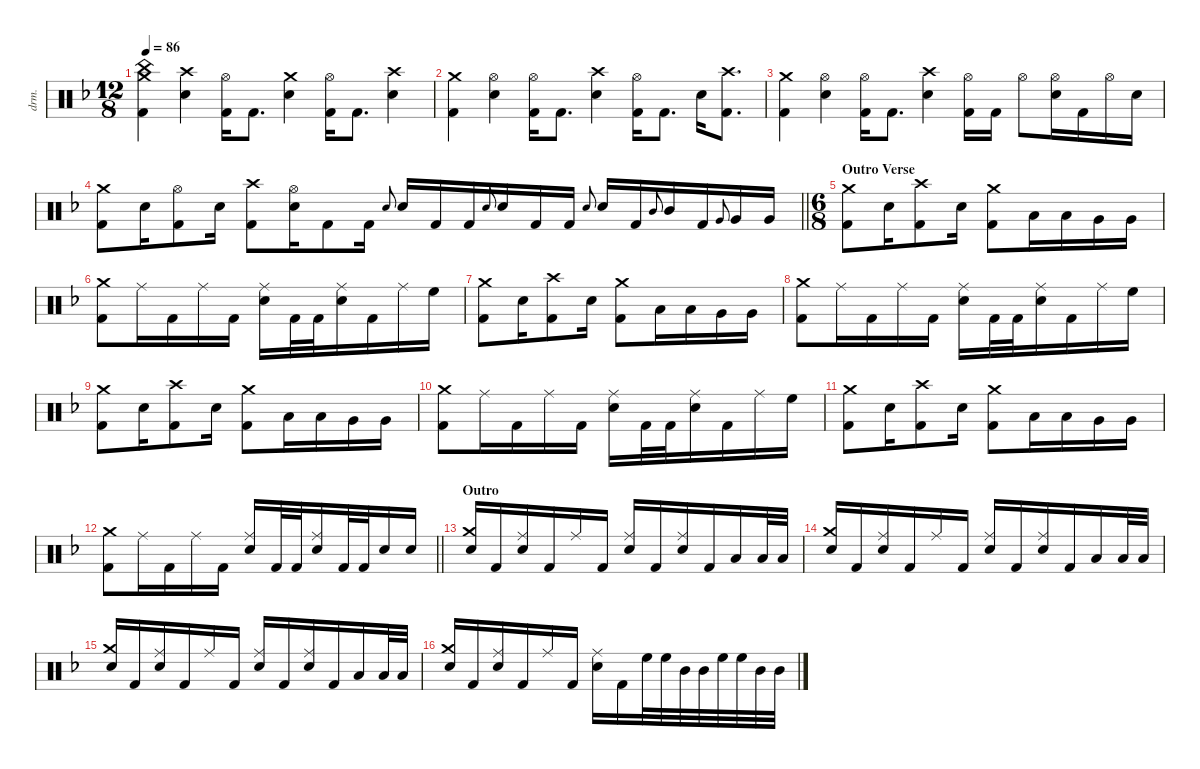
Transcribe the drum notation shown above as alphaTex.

\defaultSystemsLayout 4
\hideDynamics
\bracketExtendMode nobrackets
\otherSystemsTrackNameOrientation horizontal
\track ("Drums" "drm.") {instrument percussion}
\staff {score}
\articulation defaults
\ts (12 8)
\tempo 86
\clef neutral
\ks dminor
("Crash medium (hit)"{acc forcenatural} "China (hit)"{acc forcenatural} "Kick (hit) 2"{acc forcenatural}).4{dy f beam Down} ("Crash high (hit)"{acc forcenatural} "Snare (hit) 2"{acc forcenatural}).4{beam Down} ("Hi-Hat (open)"{acc forcenatural} "Kick (hit) 2"{acc forcenatural}).16{beam Down} "Kick (hit) 2"{acc forcenatural}.8{d beam Down} ("Crash medium (hit)"{acc forcenatural} "Snare (hit) 2"{acc forcenatural}).4{beam Down} ("Hi-Hat (open)"{acc forcenatural} "Kick (hit) 2"{acc forcenatural}).16{beam Down} "Kick (hit) 2"{acc forcenatural}.8{d beam Down} ("Crash high (hit)"{acc forcenatural} "Snare (hit) 2"{acc forcenatural}).4{beam Down} |
("Crash medium (hit)"{acc forcenatural} "Kick (hit) 2"{acc forcenatural}).4{beam Down} ("Hi-Hat (open)"{acc forcenatural} "Snare (hit) 2"{acc forcenatural}).4{beam Down} ("Hi-Hat (open)"{acc forcenatural} "Kick (hit) 2"{acc forcenatural}).16{beam Down} "Kick (hit) 2"{acc forcenatural}.8{d beam Down} ("Crash high (hit)"{acc forcenatural} "Snare (hit) 2"{acc forcenatural}).4{beam Down} ("Hi-Hat (open)"{acc forcenatural} "Kick (hit) 2"{acc forcenatural}).16{beam Down} "Kick (hit) 2"{acc forcenatural}.8{d beam Down} "Snare (hit) 2"{acc forcenatural}.16{beam Down} ("Crash high (hit)"{acc forcenatural} "Kick (hit) 2"{acc forcenatural}).8{d beam Down} |
("Crash medium (hit)"{acc forcenatural} "Kick (hit) 2"{acc forcenatural}).4{beam Down} ("Hi-Hat (open)"{acc forcenatural} "Snare (hit) 2"{acc forcenatural}).4{beam Down} ("Hi-Hat (open)"{acc forcenatural} "Kick (hit) 2"{acc forcenatural}).16{beam Down} "Kick (hit) 2"{acc forcenatural}.8{d beam Down} ("Crash high (hit)"{acc forcenatural} "Snare (hit) 2"{acc forcenatural}).4{beam Down} ("Hi-Hat (open)"{acc forcenatural} "Kick (hit) 2"{acc forcenatural}).16{beam Down} "Kick (hit) 2"{acc forcenatural}.16{beam Down} "Hi-Hat (open)"{acc forcenatural}.8{beam Down} ("Hi-Hat (open)"{acc forcenatural} "Snare (hit) 2"{acc forcenatural}).16{beam Down} "Kick (hit) 2"{acc forcenatural}.16{beam Down} "Hi-Hat (open)"{acc forcenatural}.16{beam Down} "Snare (hit) 2"{acc forcenatural}.16{beam Down} |
\barLineRight lightlight
("Crash medium (hit)"{acc forcenatural} "Kick (hit) 2"{acc forcenatural}).8{beam Down} "Snare (hit) 2"{acc forcenatural}.16{beam Down} ("Hi-Hat (open)"{acc forcenatural} "Kick (hit) 2"{acc forcenatural}).8{beam Down} "Snare (hit) 2"{acc forcenatural}.16{beam Down} ("Crash high (hit)"{acc forcenatural} "Kick (hit) 2"{acc forcenatural}).8{beam Down} ("Hi-Hat (open)"{acc forcenatural} "Snare (hit) 2"{acc forcenatural}).16{beam Down} "Kick (hit) 2"{acc forcenatural}.8{beam Down} "Kick (hit) 2"{acc forcenatural}.16{beam Down} "Snare (hit) 2"{acc forcenatural}.8{gr onbeat dy mf beam Up} "Snare (hit) 2"{acc forcenatural}.16{dy f beam Up} "Kick (hit) 2"{acc forcenatural}.16{beam Up} "Kick (hit) 2"{acc forcenatural}.16{beam Up} "Snare (hit) 2"{acc forcenatural}.8{gr onbeat dy mf beam Up} "Snare (hit) 2"{acc forcenatural}.16{dy f beam Up} "Kick (hit) 2"{acc forcenatural}.16{beam Up} "Kick (hit) 2"{acc forcenatural}.16{beam Up} "Snare (hit) 2"{acc forcenatural}.8{gr onbeat dy mf beam Up} "Snare (hit) 2"{acc forcenatural}.16{dy f beam Up} "Kick (hit) 2"{acc forcenatural}.16{beam Up} "Mid Tom (hit)"{acc forcenatural}.8{gr onbeat dy mf beam Up} "Mid Tom (hit)"{acc forcenatural}.16{dy f beam Up} "Kick (hit) 2"{acc forcenatural}.16{beam Up} "Very Low Tom (hit)"{acc forcenatural}.8{gr onbeat dy mf beam Up} "Very Low Tom (hit)"{acc forcenatural}.16{dy f beam Up} "Very Low Tom (hit)"{acc forcenatural}.16{beam Up} |
\ts (6 8)
\beaming (8 3 3)
\section ("" "Outro Verse")
("Crash medium (hit)"{acc forcenatural} "Kick (hit) 2"{acc forcenatural}).8{beam Down} "Snare (hit) 2"{acc forcenatural}.16{beam Down} ("Crash high (hit)"{acc forcenatural} "Kick (hit) 2"{acc forcenatural}).8{beam Down} "Snare (hit) 2"{acc forcenatural}.16{beam Down} ("Crash medium (hit)"{acc forcenatural} "Kick (hit) 2"{acc forcenatural}).8{beam Down} "Low Tom (hit)"{acc forcenatural}.16{beam Down} "Low Tom (hit)"{acc forcenatural}.16{beam Down} "Very Low Tom (hit)"{acc forcenatural}.16{beam Down} "Very Low Tom (hit)"{acc forcenatural}.16{beam Down} |
("Crash medium (hit)"{acc forcenatural} "Kick (hit) 2"{acc forcenatural}).8{beam Down} "Ride (middle)"{acc forcenatural}.16{beam Down} "Kick (hit) 2"{acc forcenatural}.16{beam Down} "Ride (middle)"{acc forcenatural}.16{beam Down} "Kick (hit) 2"{acc forcenatural}.16{beam Down} ("Ride (middle)"{acc forcenatural} "Snare (hit) 2"{acc forcenatural}).16{beam Down} "Kick (hit) 2"{acc forcenatural}.32{beam Down} "Kick (hit) 2"{acc forcenatural}.32{beam Down} ("Ride (middle)"{acc forcenatural} "Snare (hit) 2"{acc forcenatural}).16{beam Down} "Kick (hit) 2"{acc forcenatural}.16{beam Down} "Ride (middle)"{acc forcenatural}.16{beam Down} "High Floor Tom (hit)"{acc forcenatural}.16{beam Down} |
("Crash medium (hit)"{acc forcenatural} "Kick (hit) 2"{acc forcenatural}).8{beam Down} "Snare (hit) 2"{acc forcenatural}.16{beam Down} ("Crash high (hit)"{acc forcenatural} "Kick (hit) 2"{acc forcenatural}).8{beam Down} "Snare (hit) 2"{acc forcenatural}.16{beam Down} ("Crash medium (hit)"{acc forcenatural} "Kick (hit) 2"{acc forcenatural}).8{beam Down} "Low Tom (hit)"{acc forcenatural}.16{beam Down} "Low Tom (hit)"{acc forcenatural}.16{beam Down} "Very Low Tom (hit)"{acc forcenatural}.16{beam Down} "Very Low Tom (hit)"{acc forcenatural}.16{beam Down} |
("Crash medium (hit)"{acc forcenatural} "Kick (hit) 2"{acc forcenatural}).8{beam Down} "Ride (middle)"{acc forcenatural}.16{beam Down} "Kick (hit) 2"{acc forcenatural}.16{beam Down} "Ride (middle)"{acc forcenatural}.16{beam Down} "Kick (hit) 2"{acc forcenatural}.16{beam Down} ("Ride (middle)"{acc forcenatural} "Snare (hit) 2"{acc forcenatural}).16{beam Down} "Kick (hit) 2"{acc forcenatural}.32{beam Down} "Kick (hit) 2"{acc forcenatural}.32{beam Down} ("Ride (middle)"{acc forcenatural} "Snare (hit) 2"{acc forcenatural}).16{beam Down} "Kick (hit) 2"{acc forcenatural}.16{beam Down} "Ride (middle)"{acc forcenatural}.16{beam Down} "High Floor Tom (hit)"{acc forcenatural}.16{beam Down} |
("Crash medium (hit)"{acc forcenatural} "Kick (hit) 2"{acc forcenatural}).8{beam Down} "Snare (hit) 2"{acc forcenatural}.16{beam Down} ("Crash high (hit)"{acc forcenatural} "Kick (hit) 2"{acc forcenatural}).8{beam Down} "Snare (hit) 2"{acc forcenatural}.16{beam Down} ("Crash medium (hit)"{acc forcenatural} "Kick (hit) 2"{acc forcenatural}).8{beam Down} "Low Tom (hit)"{acc forcenatural}.16{beam Down} "Low Tom (hit)"{acc forcenatural}.16{beam Down} "Very Low Tom (hit)"{acc forcenatural}.16{beam Down} "Very Low Tom (hit)"{acc forcenatural}.16{beam Down} |
("Crash medium (hit)"{acc forcenatural} "Kick (hit) 2"{acc forcenatural}).8{beam Down} "Ride (middle)"{acc forcenatural}.16{beam Down} "Kick (hit) 2"{acc forcenatural}.16{beam Down} "Ride (middle)"{acc forcenatural}.16{beam Down} "Kick (hit) 2"{acc forcenatural}.16{beam Down} ("Ride (middle)"{acc forcenatural} "Snare (hit) 2"{acc forcenatural}).16{beam Down} "Kick (hit) 2"{acc forcenatural}.32{beam Down} "Kick (hit) 2"{acc forcenatural}.32{beam Down} ("Ride (middle)"{acc forcenatural} "Snare (hit) 2"{acc forcenatural}).16{beam Down} "Kick (hit) 2"{acc forcenatural}.16{beam Down} "Ride (middle)"{acc forcenatural}.16{beam Down} "High Floor Tom (hit)"{acc forcenatural}.16{beam Down} |
("Crash medium (hit)"{acc forcenatural} "Kick (hit) 2"{acc forcenatural}).8{beam Down} "Snare (hit) 2"{acc forcenatural}.16{beam Down} ("Crash high (hit)"{acc forcenatural} "Kick (hit) 2"{acc forcenatural}).8{beam Down} "Snare (hit) 2"{acc forcenatural}.16{beam Down} ("Crash medium (hit)"{acc forcenatural} "Kick (hit) 2"{acc forcenatural}).8{beam Down} "Low Tom (hit)"{acc forcenatural}.16{beam Down} "Low Tom (hit)"{acc forcenatural}.16{beam Down} "Very Low Tom (hit)"{acc forcenatural}.16{beam Down} "Very Low Tom (hit)"{acc forcenatural}.16{beam Down} |
\barLineRight lightlight
("Crash medium (hit)"{acc forcenatural} "Kick (hit) 2"{acc forcenatural}).8{beam Down} "Ride (middle)"{acc forcenatural}.16{beam Down} "Kick (hit) 2"{acc forcenatural}.16{beam Down} "Ride (middle)"{acc forcenatural}.16{beam Down} "Kick (hit) 2"{acc forcenatural}.16{beam Down} ("Ride (middle)"{acc forcenatural} "Snare (hit) 2"{acc forcenatural}).16{beam Up} "Kick (hit) 2"{acc forcenatural}.32{beam Up} "Kick (hit) 2"{acc forcenatural}.32{beam Up} ("Ride (middle)"{acc forcenatural} "Snare (hit) 2"{acc forcenatural}).16{beam Up} "Kick (hit) 2"{acc forcenatural}.32{beam Up} "Kick (hit) 2"{acc forcenatural}.32{beam Up} "Snare (hit) 2"{acc forcenatural}.16{beam Up} "Snare (hit) 2"{acc forcenatural}.16{beam Up} |
\section ("" "Outro")
("Crash medium (hit)"{acc forcenatural} "Snare (hit) 2"{acc forcenatural}).16{beam Up} "Kick (hit) 2"{acc forcenatural}.16{beam Up} ("Ride (middle)"{acc forcenatural} "Snare (hit) 2"{acc forcenatural}).16{beam Up} "Kick (hit) 2"{acc forcenatural}.16{beam Up} "Ride (middle)"{acc forcenatural}.16{beam Up} "Kick (hit) 2"{acc forcenatural}.16{beam Up} ("Ride (middle)"{acc forcenatural} "Snare (hit) 2"{acc forcenatural}).16{beam Up} "Kick (hit) 2"{acc forcenatural}.16{beam Up} ("Ride (middle)"{acc forcenatural} "Snare (hit) 2"{acc forcenatural}).16{beam Up} "Kick (hit) 2"{acc forcenatural}.16{beam Up} "Low Tom (hit)"{acc forcenatural}.16{beam Up} "Low Tom (hit)"{acc forcenatural}.32{beam Up} "Low Tom (hit)"{acc forcenatural}.32{beam Up} |
("Crash medium (hit)"{acc forcenatural} "Snare (hit) 2"{acc forcenatural}).16{beam Up} "Kick (hit) 2"{acc forcenatural}.16{beam Up} ("Ride (middle)"{acc forcenatural} "Snare (hit) 2"{acc forcenatural}).16{beam Up} "Kick (hit) 2"{acc forcenatural}.16{beam Up} "Ride (middle)"{acc forcenatural}.16{beam Up} "Kick (hit) 2"{acc forcenatural}.16{beam Up} ("Ride (middle)"{acc forcenatural} "Snare (hit) 2"{acc forcenatural}).16{beam Up} "Kick (hit) 2"{acc forcenatural}.16{beam Up} ("Ride (middle)"{acc forcenatural} "Snare (hit) 2"{acc forcenatural}).16{beam Up} "Kick (hit) 2"{acc forcenatural}.16{beam Up} "Low Tom (hit)"{acc forcenatural}.16{beam Up} "Low Tom (hit)"{acc forcenatural}.32{beam Up} "Low Tom (hit)"{acc forcenatural}.32{beam Up} |
("Crash medium (hit)"{acc forcenatural} "Snare (hit) 2"{acc forcenatural}).16{beam Up} "Kick (hit) 2"{acc forcenatural}.16{beam Up} ("Ride (middle)"{acc forcenatural} "Snare (hit) 2"{acc forcenatural}).16{beam Up} "Kick (hit) 2"{acc forcenatural}.16{beam Up} "Ride (middle)"{acc forcenatural}.16{beam Up} "Kick (hit) 2"{acc forcenatural}.16{beam Up} ("Ride (middle)"{acc forcenatural} "Snare (hit) 2"{acc forcenatural}).16{beam Up} "Kick (hit) 2"{acc forcenatural}.16{beam Up} ("Ride (middle)"{acc forcenatural} "Snare (hit) 2"{acc forcenatural}).16{beam Up} "Kick (hit) 2"{acc forcenatural}.16{beam Up} "Low Tom (hit)"{acc forcenatural}.16{beam Up} "Low Tom (hit)"{acc forcenatural}.32{beam Up} "Low Tom (hit)"{acc forcenatural}.32{beam Up} |
("Crash medium (hit)"{acc forcenatural} "Snare (hit) 2"{acc forcenatural}).16{beam Up} "Kick (hit) 2"{acc forcenatural}.16{beam Up} ("Ride (middle)"{acc forcenatural} "Snare (hit) 2"{acc forcenatural}).16{beam Up} "Kick (hit) 2"{acc forcenatural}.16{beam Up} "Ride (middle)"{acc forcenatural}.16{beam Up} "Kick (hit) 2"{acc forcenatural}.16{beam Up} ("Ride (middle)"{acc forcenatural} "Snare (hit) 2"{acc forcenatural}).16{beam Down} "Kick (hit) 2"{acc forcenatural}.16{beam Down} "High Floor Tom (hit)"{acc forcenatural}.32{beam Down} "High Floor Tom (hit)"{acc forcenatural}.32{beam Down} "Mid Tom (hit)"{acc forcenatural}.32{beam Down} "Mid Tom (hit)"{acc forcenatural}.32{beam Down} "High Floor Tom (hit)"{acc forcenatural}.32{beam Down} "High Floor Tom (hit)"{acc forcenatural}.32{beam Down} "Mid Tom (hit)"{acc forcenatural}.32{beam Down} "Mid Tom (hit)"{acc forcenatural}.32{beam Down}
